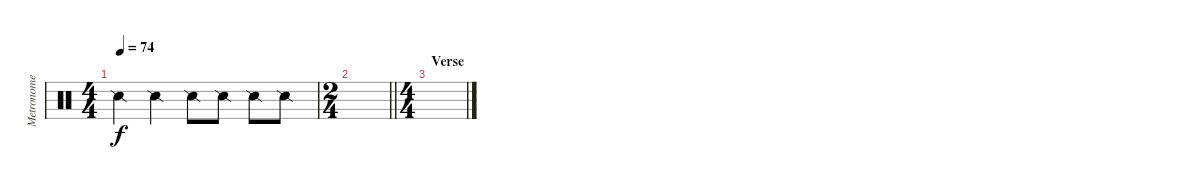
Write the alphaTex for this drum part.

\track ("Metronome" "Metronome") {instrument percussion}
\staff {score}
\articulation defaults
\ts (4 4)
\tempo 74
\clef neutral
\ks c "Snare (side stick) 2".4{dy f} "Snare (side stick) 2".4 "Snare (side stick) 2".8 "Snare (side stick) 2".8 "Snare (side stick) 2".8 "Snare (side stick) 2".8
|
\ts (2 4)
\barLineRight lightlight
|
\ts (4 4)
\section ("" "Verse")
